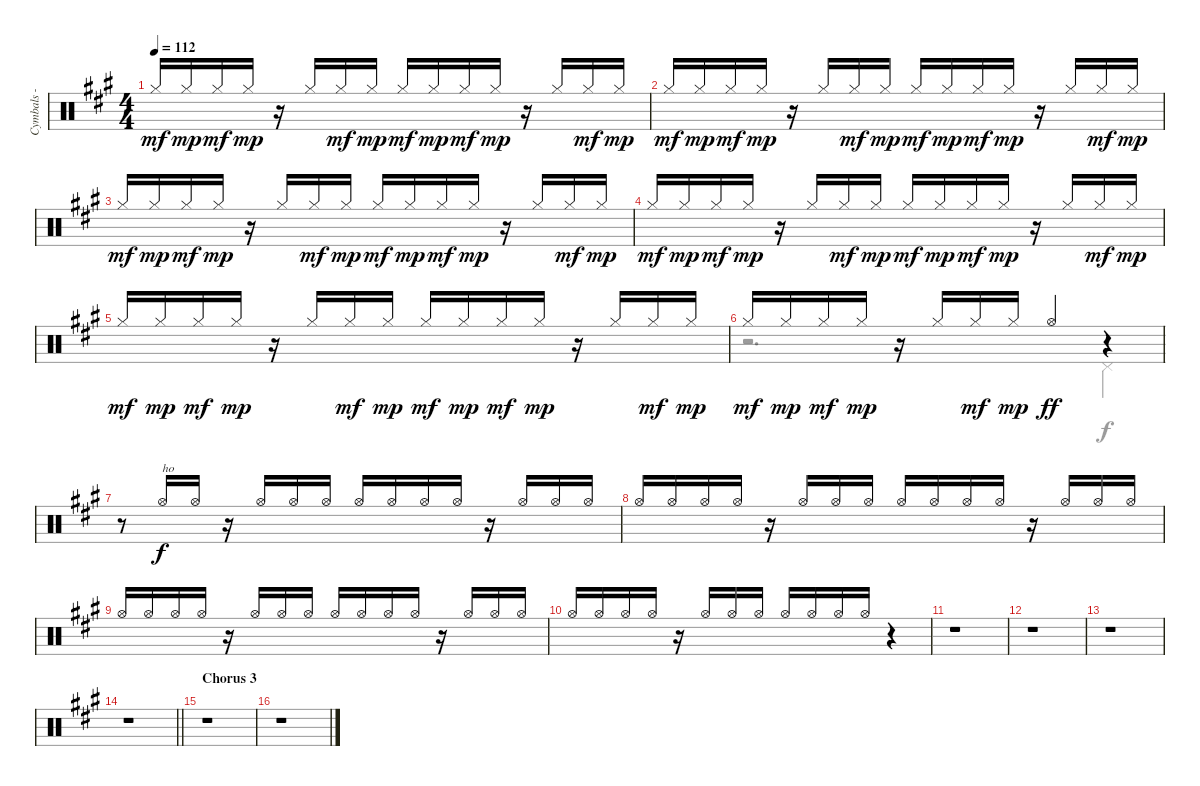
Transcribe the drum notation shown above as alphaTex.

\track ("Cymbals - hi-hat" "Cymbals - ") {instrument percussion}
\staff {score}
\articulation defaults
\voice
\ts (4 4)
\tempo 112
\clef neutral
\ks f#minor "Hi-Hat (closed)".16{dy mf beam Up} "Hi-Hat (closed)".16{dy mp beam Up} "Hi-Hat (closed)".16{dy mf beam Up} "Hi-Hat (closed)".16{dy mp beam Up}
r.16 "Hi-Hat (closed)".16{beam Up} "Hi-Hat (closed)".16{dy mf beam Up} "Hi-Hat (closed)".16{dy mp beam Up} "Hi-Hat (closed)".16{dy mf beam Up} "Hi-Hat (closed)".16{dy mp beam Up} "Hi-Hat (closed)".16{dy mf beam Up} "Hi-Hat (closed)".16{dy mp beam Up} r.16 "Hi-Hat (closed)".16{beam Up} "Hi-Hat (closed)".16{dy mf beam Up} "Hi-Hat (closed)".16{dy mp beam Up} |
"Hi-Hat (closed)".16{dy mf beam Up} "Hi-Hat (closed)".16{dy mp beam Up} "Hi-Hat (closed)".16{dy mf beam Up} "Hi-Hat (closed)".16{dy mp beam Up} r.16 "Hi-Hat (closed)".16{beam Up} "Hi-Hat (closed)".16{dy mf beam Up} "Hi-Hat (closed)".16{dy mp beam Up} "Hi-Hat (closed)".16{dy mf beam Up} "Hi-Hat (closed)".16{dy mp beam Up} "Hi-Hat (closed)".16{dy mf beam Up} "Hi-Hat (closed)".16{dy mp beam Up} r.16 "Hi-Hat (closed)".16{beam Up} "Hi-Hat (closed)".16{dy mf beam Up} "Hi-Hat (closed)".16{dy mp beam Up} |
"Hi-Hat (closed)".16{dy mf beam Up} "Hi-Hat (closed)".16{dy mp beam Up} "Hi-Hat (closed)".16{dy mf beam Up} "Hi-Hat (closed)".16{dy mp beam Up} r.16 "Hi-Hat (closed)".16{beam Up} "Hi-Hat (closed)".16{dy mf beam Up} "Hi-Hat (closed)".16{dy mp beam Up} "Hi-Hat (closed)".16{dy mf beam Up} "Hi-Hat (closed)".16{dy mp beam Up} "Hi-Hat (closed)".16{dy mf beam Up} "Hi-Hat (closed)".16{dy mp beam Up} r.16 "Hi-Hat (closed)".16{beam Up} "Hi-Hat (closed)".16{dy mf beam Up} "Hi-Hat (closed)".16{dy mp beam Up} |
"Hi-Hat (closed)".16{dy mf beam Up} "Hi-Hat (closed)".16{dy mp beam Up} "Hi-Hat (closed)".16{dy mf beam Up} "Hi-Hat (closed)".16{dy mp beam Up} r.16 "Hi-Hat (closed)".16{beam Up} "Hi-Hat (closed)".16{dy mf beam Up} "Hi-Hat (closed)".16{dy mp beam Up} "Hi-Hat (closed)".16{dy mf beam Up} "Hi-Hat (closed)".16{dy mp beam Up} "Hi-Hat (closed)".16{dy mf beam Up} "Hi-Hat (closed)".16{dy mp beam Up} r.16 "Hi-Hat (closed)".16{beam Up} "Hi-Hat (closed)".16{dy mf beam Up} "Hi-Hat (closed)".16{dy mp beam Up} |
"Hi-Hat (closed)".16{dy mf beam Up} "Hi-Hat (closed)".16{dy mp beam Up} "Hi-Hat (closed)".16{dy mf beam Up} "Hi-Hat (closed)".16{dy mp beam Up} r.16 "Hi-Hat (closed)".16{beam Up} "Hi-Hat (closed)".16{dy mf beam Up} "Hi-Hat (closed)".16{dy mp beam Up} "Hi-Hat (closed)".16{dy mf beam Up} "Hi-Hat (closed)".16{dy mp beam Up} "Hi-Hat (closed)".16{dy mf beam Up} "Hi-Hat (closed)".16{dy mp beam Up} r.16 "Hi-Hat (closed)".16{beam Up} "Hi-Hat (closed)".16{dy mf beam Up} "Hi-Hat (closed)".16{dy mp beam Up} |
"Hi-Hat (closed)".16{dy mf beam Up} "Hi-Hat (closed)".16{dy mp beam Up} "Hi-Hat (closed)".16{dy mf beam Up} "Hi-Hat (closed)".16{dy mp beam Up} r.16 "Hi-Hat (closed)".16{beam Up} "Hi-Hat (closed)".16{dy mf beam Up} "Hi-Hat (closed)".16{dy mp beam Up} "Hi-Hat (open)".4{dy ff beam Up} r.4 |
r.8 "Hi-Hat (open)".16{txt "ho" dy f beam Up} "Hi-Hat (open)".16{beam Up} r.16 "Hi-Hat (open)".16{beam Up} "Hi-Hat (open)".16{beam Up} "Hi-Hat (open)".16{beam Up} "Hi-Hat (open)".16{beam Up} "Hi-Hat (open)".16{beam Up} "Hi-Hat (open)".16{beam Up} "Hi-Hat (open)".16{beam Up} r.16 "Hi-Hat (open)".16{beam Up} "Hi-Hat (open)".16{beam Up} "Hi-Hat (open)".16{beam Up} |
"Hi-Hat (open)".16{beam Up} "Hi-Hat (open)".16{beam Up} "Hi-Hat (open)".16{beam Up} "Hi-Hat (open)".16{beam Up} r.16 "Hi-Hat (open)".16{beam Up} "Hi-Hat (open)".16{beam Up} "Hi-Hat (open)".16{beam Up} "Hi-Hat (open)".16{beam Up} "Hi-Hat (open)".16{beam Up} "Hi-Hat (open)".16{beam Up} "Hi-Hat (open)".16{beam Up} r.16 "Hi-Hat (open)".16{beam Up} "Hi-Hat (open)".16{beam Up} "Hi-Hat (open)".16{beam Up} |
"Hi-Hat (open)".16{beam Up} "Hi-Hat (open)".16{beam Up} "Hi-Hat (open)".16{beam Up} "Hi-Hat (open)".16{beam Up} r.16 "Hi-Hat (open)".16{beam Up} "Hi-Hat (open)".16{beam Up} "Hi-Hat (open)".16{beam Up} "Hi-Hat (open)".16{beam Up} "Hi-Hat (open)".16{beam Up} "Hi-Hat (open)".16{beam Up} "Hi-Hat (open)".16{beam Up} r.16 "Hi-Hat (open)".16{beam Up} "Hi-Hat (open)".16{beam Up} "Hi-Hat (open)".16{beam Up} |
"Hi-Hat (open)".16{beam Up} "Hi-Hat (open)".16{beam Up} "Hi-Hat (open)".16{beam Up} "Hi-Hat (open)".16{beam Up} r.16 "Hi-Hat (open)".16{beam Up} "Hi-Hat (open)".16{beam Up} "Hi-Hat (open)".16{beam Up} "Hi-Hat (open)".16{beam Up} "Hi-Hat (open)".16{beam Up} "Hi-Hat (open)".16{beam Up} "Hi-Hat (open)".16{beam Up} r.4 |
r.1 |
r.1 |
r.1 |
\barLineRight lightlight
r.1 |
\section ("" "Chorus 3")
r.1 |
r.1
\voice
\clef neutral
\ottava regular
\simile none
\ks f#minor
|
|
|
|
|
r.2{d} "Pedal Hi-Hat (hit)".4 |
|
|
|
|
|
|
|
\barLineRight lightlight
|
|
